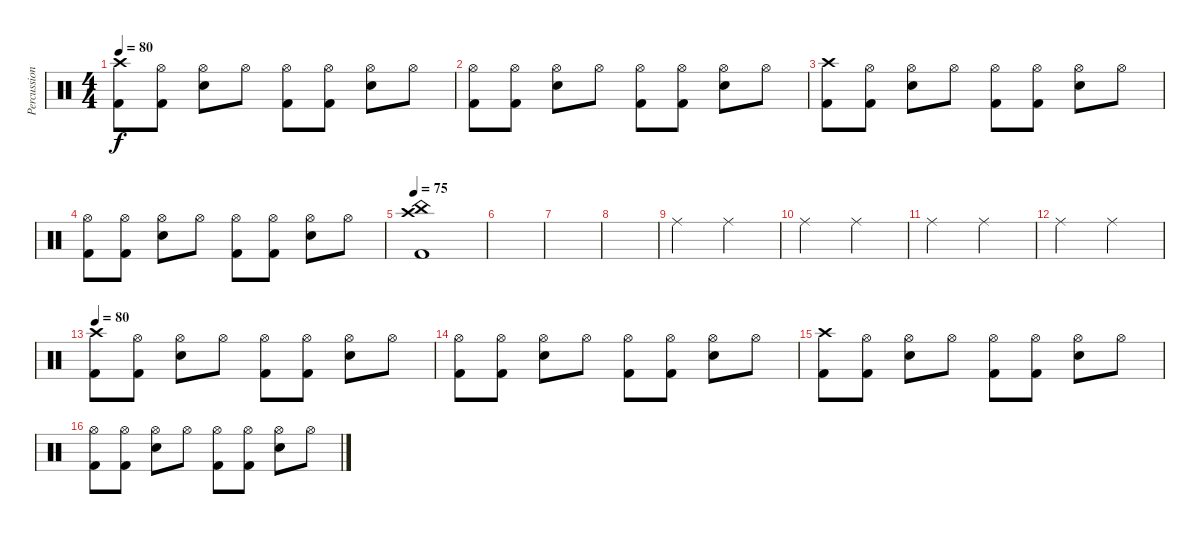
\track ("Percussion" "Percussion") {instrument percussion}
\staff {score}
\articulation defaults
\ts (4 4)
\tempo 80
\clef neutral
\ks c
("Crash high (hit)" "Kick (hit) 2").8{dy f} ("Kick (hit) 2" "Hi-Hat (open)").8 ("Electric Snare (hit)" "Hi-Hat (open)").8 "Hi-Hat (open)".8 ("Hi-Hat (open)" "Kick (hit) 2").8 ("Hi-Hat (open)" "Kick (hit) 2").8 ("Electric Snare (hit)" "Hi-Hat (open)").8 "Hi-Hat (open)".8 |
("Hi-Hat (open)" "Kick (hit) 2").8 ("Kick (hit) 2" "Hi-Hat (open)").8 ("Electric Snare (hit)" "Hi-Hat (open)").8 "Hi-Hat (open)".8 ("Hi-Hat (open)" "Kick (hit) 2").8 ("Hi-Hat (open)" "Kick (hit) 2").8 ("Electric Snare (hit)" "Hi-Hat (open)").8 "Hi-Hat (open)".8 |
("Crash high (hit)" "Kick (hit) 2").8 ("Kick (hit) 2" "Hi-Hat (open)").8 ("Electric Snare (hit)" "Hi-Hat (open)").8 "Hi-Hat (open)".8 ("Hi-Hat (open)" "Kick (hit) 2").8 ("Hi-Hat (open)" "Kick (hit) 2").8 ("Electric Snare (hit)" "Hi-Hat (open)").8 "Hi-Hat (open)".8 |
("Hi-Hat (open)" "Kick (hit) 2").8 ("Kick (hit) 2" "Hi-Hat (open)").8 ("Electric Snare (hit)" "Hi-Hat (open)").8 "Hi-Hat (open)".8 ("Hi-Hat (open)" "Kick (hit) 2").8 ("Hi-Hat (open)" "Kick (hit) 2").8 ("Electric Snare (hit)" "Hi-Hat (open)").8 "Hi-Hat (open)".8 |
\tempo 75
("Kick (hit) 2" "Crash high (hit)" "China (hit)").1 |
|
|
|
"Ride (middle)".2 "Ride (middle)".2 |
"Ride (middle)".2 "Ride (middle)".2 |
"Ride (middle)".2 "Ride (middle)".2 |
"Ride (middle)".2 "Ride (middle)".2 |
\tempo 80
("Crash high (hit)" "Kick (hit) 2").8 ("Kick (hit) 2" "Hi-Hat (open)").8 ("Electric Snare (hit)" "Hi-Hat (open)").8 "Hi-Hat (open)".8 ("Hi-Hat (open)" "Kick (hit) 2").8 ("Hi-Hat (open)" "Kick (hit) 2").8 ("Electric Snare (hit)" "Hi-Hat (open)").8 "Hi-Hat (open)".8 |
("Hi-Hat (open)" "Kick (hit) 2").8 ("Kick (hit) 2" "Hi-Hat (open)").8 ("Electric Snare (hit)" "Hi-Hat (open)").8 "Hi-Hat (open)".8 ("Hi-Hat (open)" "Kick (hit) 2").8 ("Hi-Hat (open)" "Kick (hit) 2").8 ("Electric Snare (hit)" "Hi-Hat (open)").8 "Hi-Hat (open)".8 |
("Crash high (hit)" "Kick (hit) 2").8 ("Kick (hit) 2" "Hi-Hat (open)").8 ("Electric Snare (hit)" "Hi-Hat (open)").8 "Hi-Hat (open)".8 ("Hi-Hat (open)" "Kick (hit) 2").8 ("Hi-Hat (open)" "Kick (hit) 2").8 ("Electric Snare (hit)" "Hi-Hat (open)").8 "Hi-Hat (open)".8 |
("Hi-Hat (open)" "Kick (hit) 2").8 ("Kick (hit) 2" "Hi-Hat (open)").8 ("Electric Snare (hit)" "Hi-Hat (open)").8 "Hi-Hat (open)".8 ("Hi-Hat (open)" "Kick (hit) 2").8 ("Hi-Hat (open)" "Kick (hit) 2").8 ("Electric Snare (hit)" "Hi-Hat (open)").8 "Hi-Hat (open)".8
